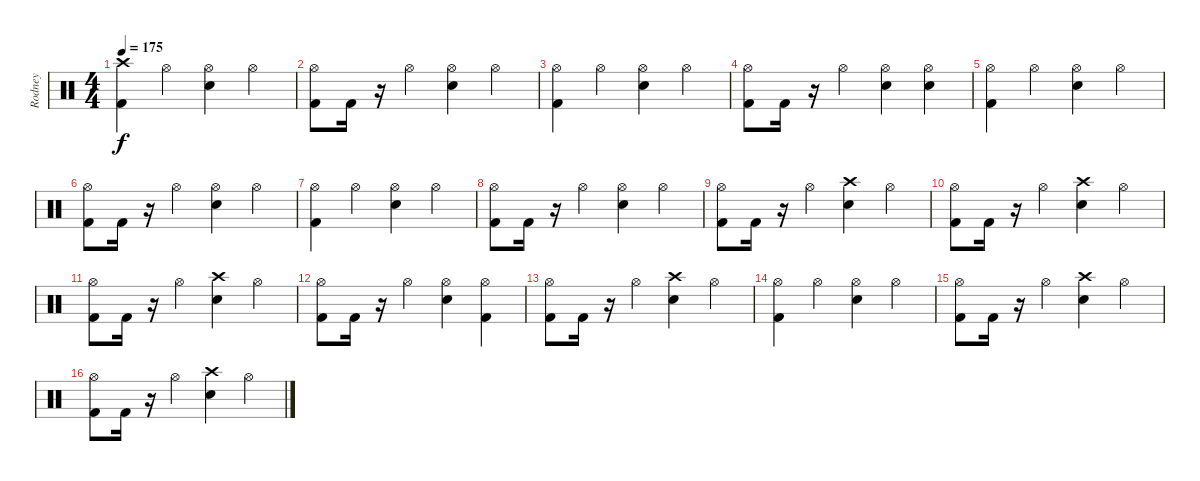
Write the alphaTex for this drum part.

\track ("Rodney" "Rodney") {instrument percussion}
\staff {score}
\articulation defaults
\ts (4 4)
\tempo 175
\clef neutral
\ks c
("Crash high (hit)" "Kick (hit) 2").4{dy f} "Hi-Hat (open)".4 ("Hi-Hat (open)" "Snare (hit) 2").4 "Hi-Hat (open)".4 |
("Hi-Hat (open)" "Kick (hit) 2").8 "Kick (hit) 2".16 r.16 "Hi-Hat (open)".4 ("Hi-Hat (open)" "Snare (hit) 2").4 "Hi-Hat (open)".4 |
("Hi-Hat (open)" "Kick (hit) 2").4 "Hi-Hat (open)".4 ("Hi-Hat (open)" "Snare (hit) 2").4 "Hi-Hat (open)".4 |
("Hi-Hat (open)" "Kick (hit) 2").8 "Kick (hit) 2".16 r.16 "Hi-Hat (open)".4 ("Hi-Hat (open)" "Snare (hit) 2").4 ("Hi-Hat (open)" "Snare (hit) 2").4 |
("Hi-Hat (open)" "Kick (hit) 2").4 "Hi-Hat (open)".4 ("Hi-Hat (open)" "Snare (hit) 2").4 "Hi-Hat (open)".4 |
("Hi-Hat (open)" "Kick (hit) 2").8 "Kick (hit) 2".16 r.16 "Hi-Hat (open)".4 ("Hi-Hat (open)" "Snare (hit) 2").4 "Hi-Hat (open)".4 |
("Hi-Hat (open)" "Kick (hit) 2").4 "Hi-Hat (open)".4 ("Hi-Hat (open)" "Snare (hit) 2").4 "Hi-Hat (open)".4 |
("Hi-Hat (open)" "Kick (hit) 2").8 "Kick (hit) 2".16 r.16 "Hi-Hat (open)".4 ("Hi-Hat (open)" "Snare (hit) 2").4 "Hi-Hat (open)".4 |
("Hi-Hat (open)" "Kick (hit) 2").8 "Kick (hit) 2".16 r.16 "Hi-Hat (open)".4 ("Crash high (hit)" "Snare (hit) 2").4 "Hi-Hat (open)".4 |
("Hi-Hat (open)" "Kick (hit) 2").8 "Kick (hit) 2".16 r.16 "Hi-Hat (open)".4 ("Crash high (hit)" "Snare (hit) 2").4 "Hi-Hat (open)".4 |
("Hi-Hat (open)" "Kick (hit) 2").8 "Kick (hit) 2".16 r.16 "Hi-Hat (open)".4 ("Crash high (hit)" "Snare (hit) 2").4 "Hi-Hat (open)".4 |
("Hi-Hat (open)" "Kick (hit) 2").8 "Kick (hit) 2".16 r.16 "Hi-Hat (open)".4 ("Hi-Hat (open)" "Snare (hit) 2").4 ("Hi-Hat (open)" "Kick (hit) 2").4 |
("Hi-Hat (open)" "Kick (hit) 2").8 "Kick (hit) 2".16 r.16 "Hi-Hat (open)".4 ("Crash high (hit)" "Snare (hit) 2").4 "Hi-Hat (open)".4 |
("Hi-Hat (open)" "Kick (hit) 2").4 "Hi-Hat (open)".4 ("Hi-Hat (open)" "Snare (hit) 2").4 "Hi-Hat (open)".4 |
("Hi-Hat (open)" "Kick (hit) 2").8 "Kick (hit) 2".16 r.16 "Hi-Hat (open)".4 ("Crash high (hit)" "Snare (hit) 2").4 "Hi-Hat (open)".4 |
("Hi-Hat (open)" "Kick (hit) 2").8 "Kick (hit) 2".16 r.16 "Hi-Hat (open)".4 ("Crash high (hit)" "Snare (hit) 2").4 "Hi-Hat (open)".4
